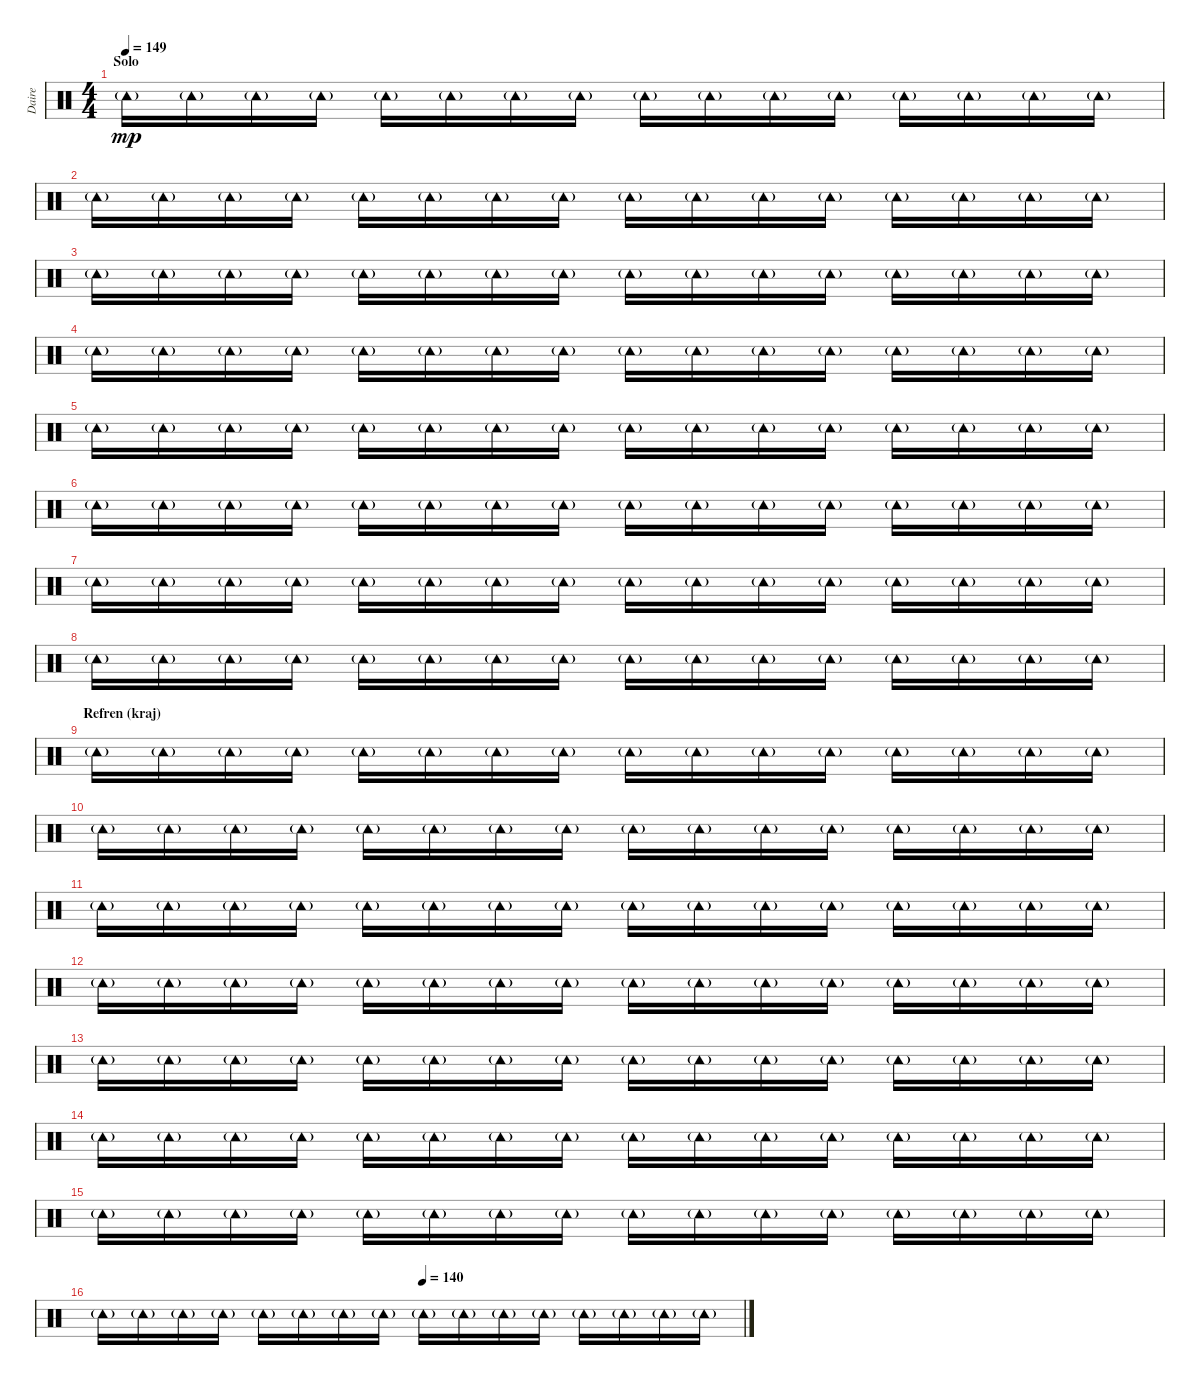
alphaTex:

\track ("Daire" "Daire") {instrument percussion}
\staff {score}
\articulation defaults
\ts (4 4)
\section ("" "Solo")
\tempo 149
\clef neutral
\ks c "Tambourine (hit)"{g}.16{dy mp} "Tambourine (hit)"{g}.16 "Tambourine (hit)"{g}.16 "Tambourine (hit)"{g}.16 "Tambourine (hit)"{g}.16 "Tambourine (hit)"{g}.16 "Tambourine (hit)"{g}.16 "Tambourine (hit)"{g}.16 "Tambourine (hit)"{g}.16 "Tambourine (hit)"{g}.16 "Tambourine (hit)"{g}.16 "Tambourine (hit)"{g}.16 "Tambourine (hit)"{g}.16 "Tambourine (hit)"{g}.16 "Tambourine (hit)"{g}.16 "Tambourine (hit)"{g}.16
|
"Tambourine (hit)"{g}.16 "Tambourine (hit)"{g}.16 "Tambourine (hit)"{g}.16 "Tambourine (hit)"{g}.16 "Tambourine (hit)"{g}.16 "Tambourine (hit)"{g}.16 "Tambourine (hit)"{g}.16 "Tambourine (hit)"{g}.16 "Tambourine (hit)"{g}.16 "Tambourine (hit)"{g}.16 "Tambourine (hit)"{g}.16 "Tambourine (hit)"{g}.16 "Tambourine (hit)"{g}.16 "Tambourine (hit)"{g}.16 "Tambourine (hit)"{g}.16 "Tambourine (hit)"{g}.16 |
"Tambourine (hit)"{g}.16 "Tambourine (hit)"{g}.16 "Tambourine (hit)"{g}.16 "Tambourine (hit)"{g}.16 "Tambourine (hit)"{g}.16 "Tambourine (hit)"{g}.16 "Tambourine (hit)"{g}.16 "Tambourine (hit)"{g}.16 "Tambourine (hit)"{g}.16 "Tambourine (hit)"{g}.16 "Tambourine (hit)"{g}.16 "Tambourine (hit)"{g}.16 "Tambourine (hit)"{g}.16 "Tambourine (hit)"{g}.16 "Tambourine (hit)"{g}.16 "Tambourine (hit)"{g}.16 |
"Tambourine (hit)"{g}.16 "Tambourine (hit)"{g}.16 "Tambourine (hit)"{g}.16 "Tambourine (hit)"{g}.16 "Tambourine (hit)"{g}.16 "Tambourine (hit)"{g}.16 "Tambourine (hit)"{g}.16 "Tambourine (hit)"{g}.16 "Tambourine (hit)"{g}.16 "Tambourine (hit)"{g}.16 "Tambourine (hit)"{g}.16 "Tambourine (hit)"{g}.16 "Tambourine (hit)"{g}.16 "Tambourine (hit)"{g}.16 "Tambourine (hit)"{g}.16 "Tambourine (hit)"{g}.16 |
"Tambourine (hit)"{g}.16 "Tambourine (hit)"{g}.16 "Tambourine (hit)"{g}.16 "Tambourine (hit)"{g}.16 "Tambourine (hit)"{g}.16 "Tambourine (hit)"{g}.16 "Tambourine (hit)"{g}.16 "Tambourine (hit)"{g}.16 "Tambourine (hit)"{g}.16 "Tambourine (hit)"{g}.16 "Tambourine (hit)"{g}.16 "Tambourine (hit)"{g}.16 "Tambourine (hit)"{g}.16 "Tambourine (hit)"{g}.16 "Tambourine (hit)"{g}.16 "Tambourine (hit)"{g}.16 |
"Tambourine (hit)"{g}.16 "Tambourine (hit)"{g}.16 "Tambourine (hit)"{g}.16 "Tambourine (hit)"{g}.16 "Tambourine (hit)"{g}.16 "Tambourine (hit)"{g}.16 "Tambourine (hit)"{g}.16 "Tambourine (hit)"{g}.16 "Tambourine (hit)"{g}.16 "Tambourine (hit)"{g}.16 "Tambourine (hit)"{g}.16 "Tambourine (hit)"{g}.16 "Tambourine (hit)"{g}.16 "Tambourine (hit)"{g}.16 "Tambourine (hit)"{g}.16 "Tambourine (hit)"{g}.16 |
"Tambourine (hit)"{g}.16 "Tambourine (hit)"{g}.16 "Tambourine (hit)"{g}.16 "Tambourine (hit)"{g}.16 "Tambourine (hit)"{g}.16 "Tambourine (hit)"{g}.16 "Tambourine (hit)"{g}.16 "Tambourine (hit)"{g}.16 "Tambourine (hit)"{g}.16 "Tambourine (hit)"{g}.16 "Tambourine (hit)"{g}.16 "Tambourine (hit)"{g}.16 "Tambourine (hit)"{g}.16 "Tambourine (hit)"{g}.16 "Tambourine (hit)"{g}.16 "Tambourine (hit)"{g}.16 |
"Tambourine (hit)"{g}.16 "Tambourine (hit)"{g}.16 "Tambourine (hit)"{g}.16 "Tambourine (hit)"{g}.16 "Tambourine (hit)"{g}.16 "Tambourine (hit)"{g}.16 "Tambourine (hit)"{g}.16 "Tambourine (hit)"{g}.16 "Tambourine (hit)"{g}.16 "Tambourine (hit)"{g}.16 "Tambourine (hit)"{g}.16 "Tambourine (hit)"{g}.16 "Tambourine (hit)"{g}.16 "Tambourine (hit)"{g}.16 "Tambourine (hit)"{g}.16 "Tambourine (hit)"{g}.16 |
\section ("" "Refren (kraj)")
"Tambourine (hit)"{g}.16 "Tambourine (hit)"{g}.16 "Tambourine (hit)"{g}.16 "Tambourine (hit)"{g}.16 "Tambourine (hit)"{g}.16 "Tambourine (hit)"{g}.16 "Tambourine (hit)"{g}.16 "Tambourine (hit)"{g}.16 "Tambourine (hit)"{g}.16 "Tambourine (hit)"{g}.16 "Tambourine (hit)"{g}.16 "Tambourine (hit)"{g}.16 "Tambourine (hit)"{g}.16 "Tambourine (hit)"{g}.16 "Tambourine (hit)"{g}.16 "Tambourine (hit)"{g}.16 |
"Tambourine (hit)"{g}.16 "Tambourine (hit)"{g}.16 "Tambourine (hit)"{g}.16 "Tambourine (hit)"{g}.16 "Tambourine (hit)"{g}.16 "Tambourine (hit)"{g}.16 "Tambourine (hit)"{g}.16 "Tambourine (hit)"{g}.16 "Tambourine (hit)"{g}.16 "Tambourine (hit)"{g}.16 "Tambourine (hit)"{g}.16 "Tambourine (hit)"{g}.16 "Tambourine (hit)"{g}.16 "Tambourine (hit)"{g}.16 "Tambourine (hit)"{g}.16 "Tambourine (hit)"{g}.16 |
"Tambourine (hit)"{g}.16 "Tambourine (hit)"{g}.16 "Tambourine (hit)"{g}.16 "Tambourine (hit)"{g}.16 "Tambourine (hit)"{g}.16 "Tambourine (hit)"{g}.16 "Tambourine (hit)"{g}.16 "Tambourine (hit)"{g}.16 "Tambourine (hit)"{g}.16 "Tambourine (hit)"{g}.16 "Tambourine (hit)"{g}.16 "Tambourine (hit)"{g}.16 "Tambourine (hit)"{g}.16 "Tambourine (hit)"{g}.16 "Tambourine (hit)"{g}.16 "Tambourine (hit)"{g}.16 |
"Tambourine (hit)"{g}.16 "Tambourine (hit)"{g}.16 "Tambourine (hit)"{g}.16 "Tambourine (hit)"{g}.16 "Tambourine (hit)"{g}.16 "Tambourine (hit)"{g}.16 "Tambourine (hit)"{g}.16 "Tambourine (hit)"{g}.16 "Tambourine (hit)"{g}.16 "Tambourine (hit)"{g}.16 "Tambourine (hit)"{g}.16 "Tambourine (hit)"{g}.16 "Tambourine (hit)"{g}.16 "Tambourine (hit)"{g}.16 "Tambourine (hit)"{g}.16 "Tambourine (hit)"{g}.16 |
"Tambourine (hit)"{g}.16 "Tambourine (hit)"{g}.16 "Tambourine (hit)"{g}.16 "Tambourine (hit)"{g}.16 "Tambourine (hit)"{g}.16 "Tambourine (hit)"{g}.16 "Tambourine (hit)"{g}.16 "Tambourine (hit)"{g}.16 "Tambourine (hit)"{g}.16 "Tambourine (hit)"{g}.16 "Tambourine (hit)"{g}.16 "Tambourine (hit)"{g}.16 "Tambourine (hit)"{g}.16 "Tambourine (hit)"{g}.16 "Tambourine (hit)"{g}.16 "Tambourine (hit)"{g}.16 |
"Tambourine (hit)"{g}.16 "Tambourine (hit)"{g}.16 "Tambourine (hit)"{g}.16 "Tambourine (hit)"{g}.16 "Tambourine (hit)"{g}.16 "Tambourine (hit)"{g}.16 "Tambourine (hit)"{g}.16 "Tambourine (hit)"{g}.16 "Tambourine (hit)"{g}.16 "Tambourine (hit)"{g}.16 "Tambourine (hit)"{g}.16 "Tambourine (hit)"{g}.16 "Tambourine (hit)"{g}.16 "Tambourine (hit)"{g}.16 "Tambourine (hit)"{g}.16 "Tambourine (hit)"{g}.16 |
"Tambourine (hit)"{g}.16 "Tambourine (hit)"{g}.16 "Tambourine (hit)"{g}.16 "Tambourine (hit)"{g}.16 "Tambourine (hit)"{g}.16 "Tambourine (hit)"{g}.16 "Tambourine (hit)"{g}.16 "Tambourine (hit)"{g}.16 "Tambourine (hit)"{g}.16 "Tambourine (hit)"{g}.16 "Tambourine (hit)"{g}.16 "Tambourine (hit)"{g}.16 "Tambourine (hit)"{g}.16 "Tambourine (hit)"{g}.16 "Tambourine (hit)"{g}.16 "Tambourine (hit)"{g}.16 |
\tempo (140 0.5)
"Tambourine (hit)"{g}.16 "Tambourine (hit)"{g}.16 "Tambourine (hit)"{g}.16 "Tambourine (hit)"{g}.16 "Tambourine (hit)"{g}.16 "Tambourine (hit)"{g}.16 "Tambourine (hit)"{g}.16 "Tambourine (hit)"{g}.16 "Tambourine (hit)"{g}.16 "Tambourine (hit)"{g}.16 "Tambourine (hit)"{g}.16 "Tambourine (hit)"{g}.16 "Tambourine (hit)"{g}.16 "Tambourine (hit)"{g}.16 "Tambourine (hit)"{g}.16 "Tambourine (hit)"{g}.16
